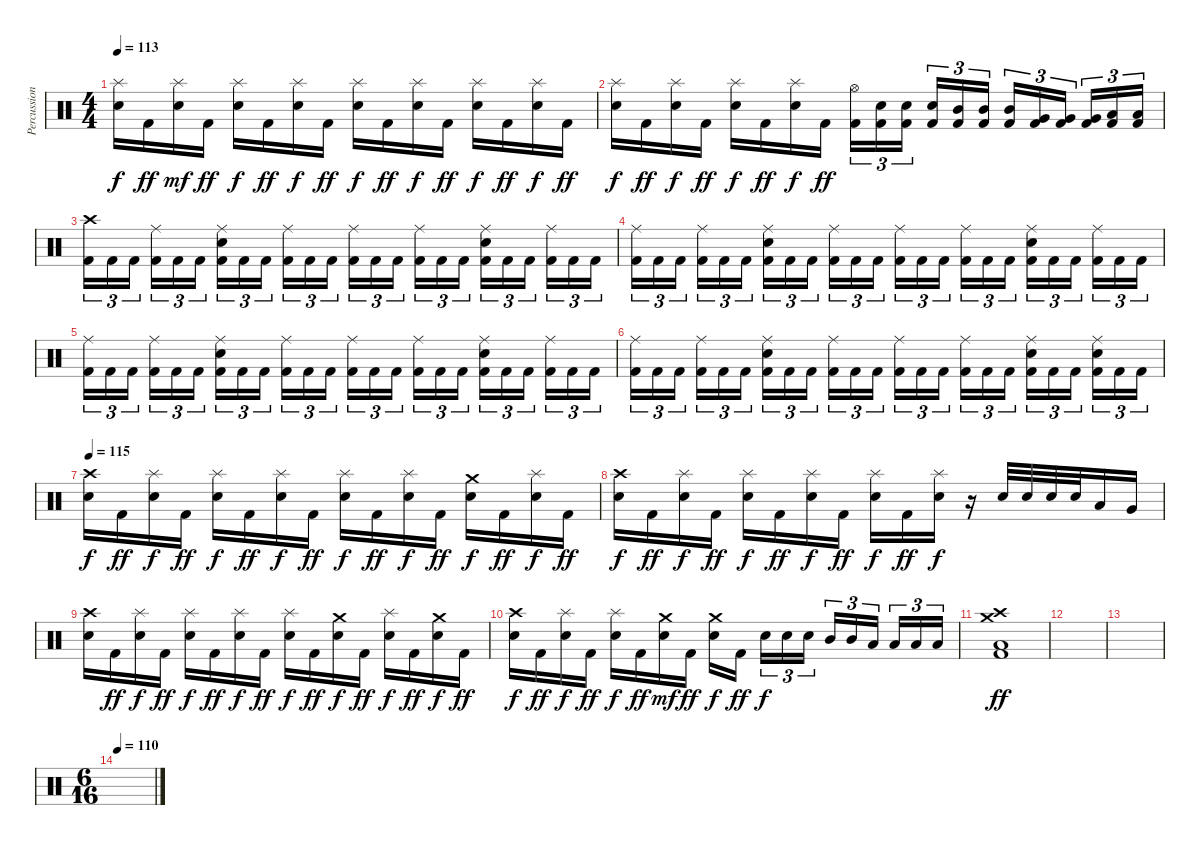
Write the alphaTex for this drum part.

\track ("Percussion" "Percussion") {instrument percussion}
\staff {score}
\articulation defaults
\ts (4 4)
\tempo 113
\clef neutral
\ks c
("Splash (hit)" "Electric Snare (hit)").16{dy f} "Kick (hit) 2".16{dy ff} ("Splash (hit)" "Electric Snare (hit)").16{dy mf} "Kick (hit) 2".16{dy ff} ("Splash (hit)" "Electric Snare (hit)").16{dy f} "Kick (hit) 2".16{dy ff} ("Splash (hit)" "Electric Snare (hit)").16{dy f} "Kick (hit) 2".16{dy ff} ("Splash (hit)" "Electric Snare (hit)").16{dy f} "Kick (hit) 2".16{dy ff} ("Splash (hit)" "Electric Snare (hit)").16{dy f} "Kick (hit) 2".16{dy ff} ("Splash (hit)" "Electric Snare (hit)").16{dy f} "Kick (hit) 2".16{dy ff} ("Splash (hit)" "Electric Snare (hit)").16{dy f} "Kick (hit) 2".16{dy ff} |
("Splash (hit)" "Electric Snare (hit)").16{dy f} "Kick (hit) 2".16{dy ff} ("Splash (hit)" "Electric Snare (hit)").16{dy f} "Kick (hit) 2".16{dy ff} ("Splash (hit)" "Electric Snare (hit)").16{dy f} "Kick (hit) 2".16{dy ff} ("Splash (hit)" "Electric Snare (hit)").16{dy f} "Kick (hit) 2".16{dy ff} ("Hi-Hat (open)" "Kick (hit) 2").16{tu (3 2)} ("Electric Snare (hit)" "Kick (hit) 2").16{tu (3 2)} ("Electric Snare (hit)" "Kick (hit) 2").16{tu (3 2)} ("Electric Snare (hit)" "Kick (hit) 2").16{tu (3 2)} ("Mid Tom (hit)" "Kick (hit) 2").16{tu (3 2)} ("Mid Tom (hit)" "Kick (hit) 2").16{tu (3 2)} ("Mid Tom (hit)" "Kick (hit) 2").16{tu (3 2)} ("Very Low Tom (hit)" "Kick (hit) 2").16{tu (3 2)} ("Very Low Tom (hit)" "Kick (hit) 2").16{tu (3 2)} ("Very Low Tom (hit)" "Kick (hit) 2").16{tu (3 2)} ("Low Floor Tom (hit)" "Kick (hit) 2").16{tu (3 2)} ("Low Floor Tom (hit)" "Kick (hit) 2").16{tu (3 2)} |
("Crash high (hit)" "Kick (hit) 2").16{tu (3 2)} "Kick (hit) 2".16{tu (3 2)} "Kick (hit) 2".16{tu (3 2)} ("Ride (middle)" "Kick (hit) 2").16{tu (3 2)} "Kick (hit) 2".16{tu (3 2)} "Kick (hit) 2".16{tu (3 2)} ("Ride (middle)" "Electric Snare (hit)" "Kick (hit) 2").16{tu (3 2)} "Kick (hit) 2".16{tu (3 2)} "Kick (hit) 2".16{tu (3 2)} ("Ride (middle)" "Kick (hit) 2").16{tu (3 2)} "Kick (hit) 2".16{tu (3 2)} "Kick (hit) 2".16{tu (3 2)} ("Ride (middle)" "Kick (hit) 2").16{tu (3 2)} "Kick (hit) 2".16{tu (3 2)} "Kick (hit) 2".16{tu (3 2)} ("Ride (middle)" "Kick (hit) 2").16{tu (3 2)} "Kick (hit) 2".16{tu (3 2)} "Kick (hit) 2".16{tu (3 2)} ("Ride (middle)" "Electric Snare (hit)" "Kick (hit) 2").16{tu (3 2)} "Kick (hit) 2".16{tu (3 2)} "Kick (hit) 2".16{tu (3 2)} ("Ride (middle)" "Kick (hit) 2").16{tu (3 2)} "Kick (hit) 2".16{tu (3 2)} "Kick (hit) 2".16{tu (3 2)} |
("Ride (middle)" "Kick (hit) 2").16{tu (3 2)} "Kick (hit) 2".16{tu (3 2)} "Kick (hit) 2".16{tu (3 2)} ("Ride (middle)" "Kick (hit) 2").16{tu (3 2)} "Kick (hit) 2".16{tu (3 2)} "Kick (hit) 2".16{tu (3 2)} ("Ride (middle)" "Electric Snare (hit)" "Kick (hit) 2").16{tu (3 2)} "Kick (hit) 2".16{tu (3 2)} "Kick (hit) 2".16{tu (3 2)} ("Ride (middle)" "Kick (hit) 2").16{tu (3 2)} "Kick (hit) 2".16{tu (3 2)} "Kick (hit) 2".16{tu (3 2)} ("Ride (middle)" "Kick (hit) 2").16{tu (3 2)} "Kick (hit) 2".16{tu (3 2)} "Kick (hit) 2".16{tu (3 2)} ("Ride (middle)" "Kick (hit) 2").16{tu (3 2)} "Kick (hit) 2".16{tu (3 2)} "Kick (hit) 2".16{tu (3 2)} ("Ride (middle)" "Electric Snare (hit)" "Kick (hit) 2").16{tu (3 2)} "Kick (hit) 2".16{tu (3 2)} "Kick (hit) 2".16{tu (3 2)} ("Ride (middle)" "Kick (hit) 2").16{tu (3 2)} "Kick (hit) 2".16{tu (3 2)} "Kick (hit) 2".16{tu (3 2)} |
("Ride (middle)" "Kick (hit) 2").16{tu (3 2)} "Kick (hit) 2".16{tu (3 2)} "Kick (hit) 2".16{tu (3 2)} ("Ride (middle)" "Kick (hit) 2").16{tu (3 2)} "Kick (hit) 2".16{tu (3 2)} "Kick (hit) 2".16{tu (3 2)} ("Ride (middle)" "Electric Snare (hit)" "Kick (hit) 2").16{tu (3 2)} "Kick (hit) 2".16{tu (3 2)} "Kick (hit) 2".16{tu (3 2)} ("Ride (middle)" "Kick (hit) 2").16{tu (3 2)} "Kick (hit) 2".16{tu (3 2)} "Kick (hit) 2".16{tu (3 2)} ("Ride (middle)" "Kick (hit) 2").16{tu (3 2)} "Kick (hit) 2".16{tu (3 2)} "Kick (hit) 2".16{tu (3 2)} ("Ride (middle)" "Kick (hit) 2").16{tu (3 2)} "Kick (hit) 2".16{tu (3 2)} "Kick (hit) 2".16{tu (3 2)} ("Ride (middle)" "Electric Snare (hit)" "Kick (hit) 2").16{tu (3 2)} "Kick (hit) 2".16{tu (3 2)} "Kick (hit) 2".16{tu (3 2)} ("Ride (middle)" "Kick (hit) 2").16{tu (3 2)} "Kick (hit) 2".16{tu (3 2)} "Kick (hit) 2".16{tu (3 2)} |
("Ride (middle)" "Kick (hit) 2").16{tu (3 2)} "Kick (hit) 2".16{tu (3 2)} "Kick (hit) 2".16{tu (3 2)} ("Ride (middle)" "Kick (hit) 2").16{tu (3 2)} "Kick (hit) 2".16{tu (3 2)} "Kick (hit) 2".16{tu (3 2)} ("Ride (middle)" "Electric Snare (hit)" "Kick (hit) 2").16{tu (3 2)} "Kick (hit) 2".16{tu (3 2)} "Kick (hit) 2".16{tu (3 2)} ("Ride (middle)" "Kick (hit) 2").16{tu (3 2)} "Kick (hit) 2".16{tu (3 2)} "Kick (hit) 2".16{tu (3 2)} ("Ride (middle)" "Kick (hit) 2").16{tu (3 2)} "Kick (hit) 2".16{tu (3 2)} "Kick (hit) 2".16{tu (3 2)} ("Ride (middle)" "Kick (hit) 2").16{tu (3 2)} "Kick (hit) 2".16{tu (3 2)} "Kick (hit) 2".16{tu (3 2)} ("Ride (middle)" "Electric Snare (hit)" "Kick (hit) 2").16{tu (3 2)} "Kick (hit) 2".16{tu (3 2)} "Kick (hit) 2".16{tu (3 2)} ("Ride (middle)" "Electric Snare (hit)" "Kick (hit) 2").16{tu (3 2)} "Kick (hit) 2".16{tu (3 2)} "Kick (hit) 2".16{tu (3 2)} |
\tempo 115
("Crash high (hit)" "Electric Snare (hit)").16{dy f} "Kick (hit) 2".16{dy ff} ("Splash (hit)" "Electric Snare (hit)").16{dy f} "Kick (hit) 2".16{dy ff} ("Splash (hit)" "Electric Snare (hit)").16{dy f} "Kick (hit) 2".16{dy ff} ("Splash (hit)" "Electric Snare (hit)").16{dy f} "Kick (hit) 2".16{dy ff} ("Splash (hit)" "Electric Snare (hit)").16{dy f} "Kick (hit) 2".16{dy ff} ("Splash (hit)" "Electric Snare (hit)").16{dy f} "Kick (hit) 2".16{dy ff} ("Crash medium (hit)" "Electric Snare (hit)").16{dy f} "Kick (hit) 2".16{dy ff} ("Splash (hit)" "Electric Snare (hit)").16{dy f} "Kick (hit) 2".16{dy ff} |
("Crash high (hit)" "Electric Snare (hit)").16{dy f} "Kick (hit) 2".16{dy ff} ("Splash (hit)" "Electric Snare (hit)").16{dy f} "Kick (hit) 2".16{dy ff} ("Splash (hit)" "Electric Snare (hit)").16{dy f} "Kick (hit) 2".16{dy ff} ("Splash (hit)" "Electric Snare (hit)").16{dy f} "Kick (hit) 2".16{dy ff} ("Splash (hit)" "Electric Snare (hit)").16{dy f} "Kick (hit) 2".16{dy ff} ("Splash (hit)" "Electric Snare (hit)").16{dy f} r.16 "Electric Snare (hit)".32 "Electric Snare (hit)".32 "Electric Snare (hit)".32 "Electric Snare (hit)".32 "Low Tom (hit)".16 "Very Low Tom (hit)".16 |
("Crash high (hit)" "Electric Snare (hit)").16 "Kick (hit) 2".16{dy ff} ("Splash (hit)" "Electric Snare (hit)").16{dy f} "Kick (hit) 2".16{dy ff} ("Splash (hit)" "Electric Snare (hit)").16{dy f} "Kick (hit) 2".16{dy ff} ("Splash (hit)" "Electric Snare (hit)").16{dy f} "Kick (hit) 2".16{dy ff} ("Splash (hit)" "Electric Snare (hit)").16{dy f} "Kick (hit) 2".16{dy ff} ("Crash medium (hit)" "Electric Snare (hit)").16{dy f} "Kick (hit) 2".16{dy ff} ("Splash (hit)" "Electric Snare (hit)").16{dy f} "Kick (hit) 2".16{dy ff} ("Crash medium (hit)" "Electric Snare (hit)").16{dy f} "Kick (hit) 2".16{dy ff} |
("Crash high (hit)" "Electric Snare (hit)").16{dy f} "Kick (hit) 2".16{dy ff} ("Splash (hit)" "Electric Snare (hit)").16{dy f} "Kick (hit) 2".16{dy ff} ("Splash (hit)" "Electric Snare (hit)").16{dy f} "Kick (hit) 2".16{dy ff} ("Crash medium (hit)" "Electric Snare (hit)").16{dy mf} "Kick (hit) 2".16{dy ff} ("Crash medium (hit)" "Electric Snare (hit)").16{dy f} "Kick (hit) 2".16{dy ff} "Electric Snare (hit)".16{tu (3 2) dy f} "Electric Snare (hit)".16{tu (3 2)} "Electric Snare (hit)".16{tu (3 2)} "Mid Tom (hit)".16{tu (3 2)} "Mid Tom (hit)".16{tu (3 2)} "Low Tom (hit)".16{tu (3 2)} "Low Tom (hit)".16{tu (3 2)} "Low Tom (hit)".16{tu (3 2)} "Low Tom (hit)".16{tu (3 2)} |
("Crash medium (hit)" "Crash high (hit)" "Low Floor Tom (hit)" "Kick (hit) 2").1{dy ff} |
|
|
\ts (6 16)
\tempo 110
